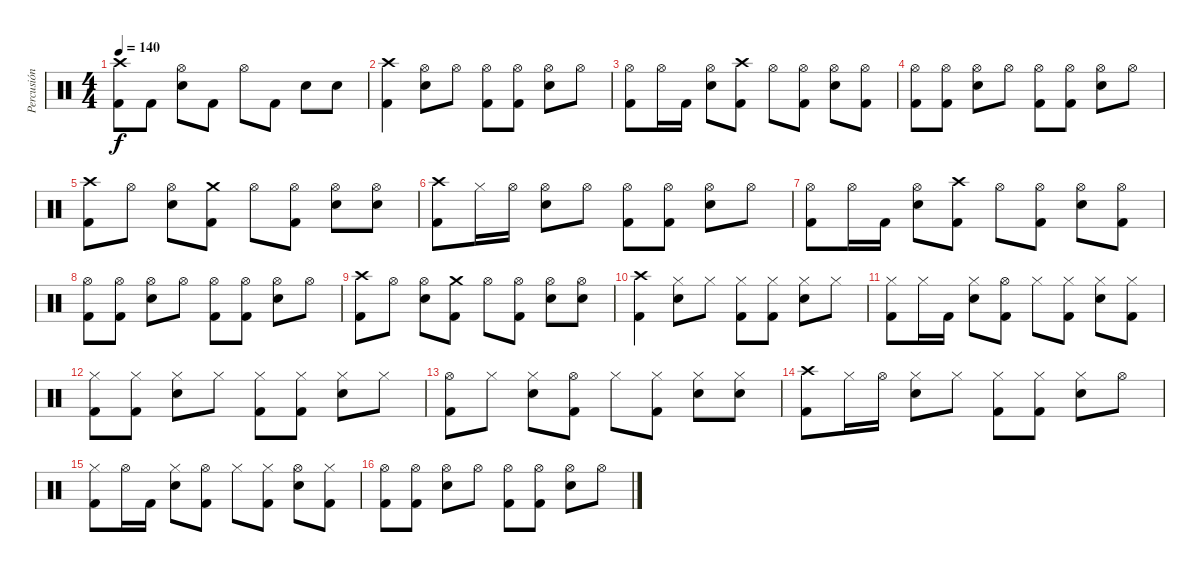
\track ("Percusión" "Percusión") {instrument percussion}
\staff {score}
\articulation defaults
\ts (4 4)
\tempo 140
\clef neutral
\ks c
("Crash high (hit)" "Kick (hit) 2").8{dy f} "Kick (hit) 2".8 ("Hi-Hat (open)" "Snare (hit) 2").8 "Kick (hit) 2".8 "Hi-Hat (open)".8 "Kick (hit) 2".8 "Snare (hit) 2".8 "Snare (hit) 2".8 |
("Crash high (hit)" "Kick (hit) 2").4 ("Hi-Hat (open)" "Snare (hit) 2").8 "Hi-Hat (open)".8 ("Hi-Hat (open)" "Kick (hit) 2").8 ("Hi-Hat (open)" "Kick (hit) 2").8 ("Hi-Hat (open)" "Snare (hit) 2").8 "Hi-Hat (open)".8 |
("Hi-Hat (open)" "Kick (hit) 2").8 "Hi-Hat (open)".16 "Kick (hit) 2".16 ("Hi-Hat (open)" "Snare (hit) 2").8 ("Crash high (hit)" "Kick (hit) 2").8 "Hi-Hat (open)".8 ("Hi-Hat (open)" "Kick (hit) 2").8 ("Hi-Hat (open)" "Snare (hit) 2").8 ("Hi-Hat (open)" "Kick (hit) 2").8 |
("Hi-Hat (open)" "Kick (hit) 2").8 ("Hi-Hat (open)" "Kick (hit) 2").8 ("Hi-Hat (open)" "Snare (hit) 2").8 "Hi-Hat (open)".8 ("Hi-Hat (open)" "Kick (hit) 2").8 ("Hi-Hat (open)" "Kick (hit) 2").8 ("Hi-Hat (open)" "Snare (hit) 2").8 "Hi-Hat (open)".8 |
("Crash high (hit)" "Kick (hit) 2").8 "Hi-Hat (open)".8 ("Hi-Hat (open)" "Snare (hit) 2").8 ("Crash medium (hit)" "Kick (hit) 2").8 "Hi-Hat (open)".8 ("Hi-Hat (open)" "Kick (hit) 2").8 ("Hi-Hat (open)" "Snare (hit) 2").8 ("Hi-Hat (open)" "Snare (hit) 2").8 |
("Crash high (hit)" "Kick (hit) 2").8 "Hi-Hat (closed)".16 "Hi-Hat (open)".16 ("Hi-Hat (open)" "Snare (hit) 2").8 "Hi-Hat (open)".8 ("Hi-Hat (open)" "Kick (hit) 2").8 ("Hi-Hat (open)" "Kick (hit) 2").8 ("Hi-Hat (open)" "Snare (hit) 2").8 "Hi-Hat (open)".8 |
("Hi-Hat (open)" "Kick (hit) 2").8 "Hi-Hat (open)".16 "Kick (hit) 2".16 ("Hi-Hat (open)" "Snare (hit) 2").8 ("Crash high (hit)" "Kick (hit) 2").8 "Hi-Hat (open)".8 ("Hi-Hat (open)" "Kick (hit) 2").8 ("Hi-Hat (open)" "Snare (hit) 2").8 ("Hi-Hat (open)" "Kick (hit) 2").8 |
("Hi-Hat (open)" "Kick (hit) 2").8 ("Hi-Hat (open)" "Kick (hit) 2").8 ("Hi-Hat (open)" "Snare (hit) 2").8 "Hi-Hat (open)".8 ("Hi-Hat (open)" "Kick (hit) 2").8 ("Hi-Hat (open)" "Kick (hit) 2").8 ("Hi-Hat (open)" "Snare (hit) 2").8 "Hi-Hat (open)".8 |
("Crash high (hit)" "Kick (hit) 2").8 "Hi-Hat (open)".8 ("Hi-Hat (open)" "Snare (hit) 2").8 ("Crash medium (hit)" "Kick (hit) 2").8 "Hi-Hat (open)".8 ("Hi-Hat (open)" "Kick (hit) 2").8 ("Hi-Hat (open)" "Snare (hit) 2").8 ("Hi-Hat (open)" "Snare (hit) 2").8 |
("Crash high (hit)" "Kick (hit) 2").4 ("Hi-Hat (closed)" "Snare (hit) 2").8 "Hi-Hat (closed)".8 ("Hi-Hat (closed)" "Kick (hit) 2").8 ("Hi-Hat (closed)" "Kick (hit) 2").8 ("Hi-Hat (closed)" "Snare (hit) 2").8 "Hi-Hat (closed)".8 |
("Hi-Hat (closed)" "Kick (hit) 2").8 "Hi-Hat (closed)".16 "Kick (hit) 2".16 ("Hi-Hat (closed)" "Snare (hit) 2").8 ("Hi-Hat (open)" "Kick (hit) 2").8 "Hi-Hat (closed)".8 ("Hi-Hat (closed)" "Kick (hit) 2").8 ("Hi-Hat (closed)" "Snare (hit) 2").8 ("Hi-Hat (closed)" "Kick (hit) 2").8 |
("Hi-Hat (closed)" "Kick (hit) 2").8 ("Hi-Hat (closed)" "Kick (hit) 2").8 ("Hi-Hat (closed)" "Snare (hit) 2").8 "Hi-Hat (closed)".8 ("Hi-Hat (closed)" "Kick (hit) 2").8 ("Hi-Hat (closed)" "Kick (hit) 2").8 ("Hi-Hat (closed)" "Snare (hit) 2").8 "Hi-Hat (closed)".8 |
("Hi-Hat (open)" "Kick (hit) 2").8 "Hi-Hat (closed)".8 ("Hi-Hat (closed)" "Snare (hit) 2").8 ("Hi-Hat (open)" "Kick (hit) 2").8 "Hi-Hat (closed)".8 ("Hi-Hat (closed)" "Kick (hit) 2").8 ("Hi-Hat (closed)" "Snare (hit) 2").8 ("Hi-Hat (closed)" "Snare (hit) 2").8 |
("Crash high (hit)" "Kick (hit) 2").8 "Hi-Hat (closed)".16 "Hi-Hat (open)".16 ("Hi-Hat (closed)" "Snare (hit) 2").8 "Hi-Hat (closed)".8 ("Hi-Hat (closed)" "Kick (hit) 2").8 ("Hi-Hat (closed)" "Kick (hit) 2").8 ("Hi-Hat (closed)" "Snare (hit) 2").8 "Hi-Hat (open)".8 |
("Hi-Hat (closed)" "Kick (hit) 2").8 "Hi-Hat (open)".16 "Kick (hit) 2".16 ("Hi-Hat (closed)" "Snare (hit) 2").8 ("Hi-Hat (open)" "Kick (hit) 2").8 "Hi-Hat (closed)".8 ("Hi-Hat (closed)" "Kick (hit) 2").8 ("Hi-Hat (open)" "Snare (hit) 2").8 ("Hi-Hat (closed)" "Kick (hit) 2").8 |
("Hi-Hat (open)" "Kick (hit) 2").8 ("Hi-Hat (open)" "Kick (hit) 2").8 ("Hi-Hat (open)" "Snare (hit) 2").8 "Hi-Hat (open)".8 ("Hi-Hat (open)" "Kick (hit) 2").8 ("Hi-Hat (open)" "Kick (hit) 2").8 ("Hi-Hat (open)" "Snare (hit) 2").8 "Hi-Hat (open)".8
